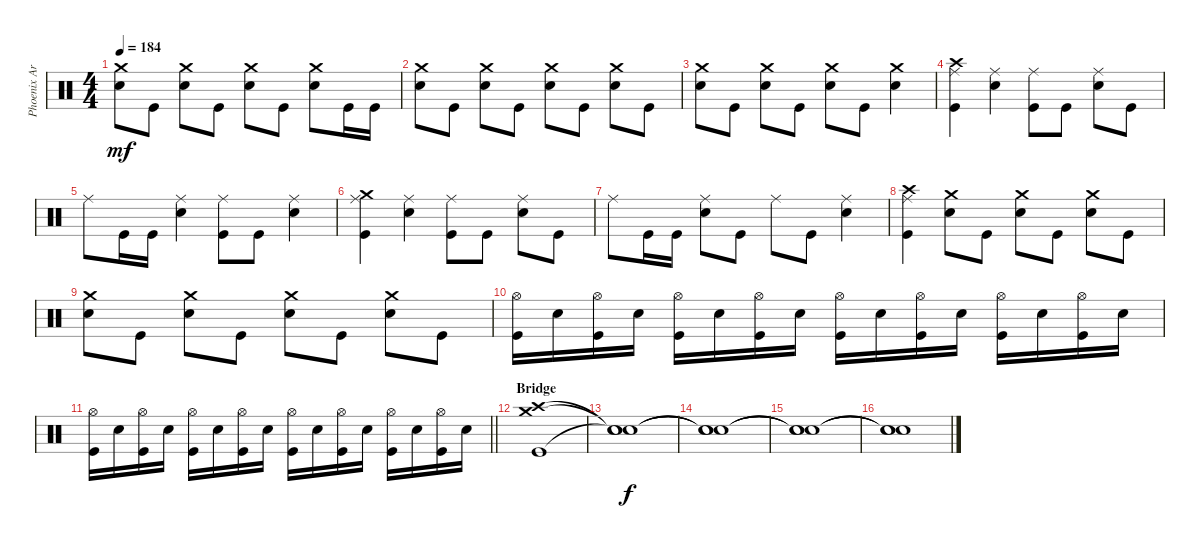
\track ("Phoenix Arn-Horn (Drums)" "Phoenix Ar") {instrument percussion}
\staff {score}
\articulation defaults
\ts (4 4)
\tempo 184
\clef neutral
\ks c
("Snare (hit) 2" "Crash medium (hit)").8{dy mf} "Kick (hit)".8 ("Snare (hit) 2" "Crash medium (hit)").8 "Kick (hit)".8 ("Snare (hit) 2" "Crash medium (hit)").8 "Kick (hit)".8 ("Snare (hit) 2" "Crash medium (hit)").8 "Kick (hit)".16 "Kick (hit)".16 |
("Snare (hit) 2" "Crash medium (hit)").8 "Kick (hit)".8 ("Snare (hit) 2" "Crash medium (hit)").8 "Kick (hit)".8 ("Snare (hit) 2" "Crash medium (hit)").8 "Kick (hit)".8 ("Snare (hit) 2" "Crash medium (hit)").8 "Kick (hit)".8 |
("Snare (hit) 2" "Crash medium (hit)").8 "Kick (hit)".8 ("Snare (hit) 2" "Crash medium (hit)").8 "Kick (hit)".8 ("Snare (hit) 2" "Crash medium (hit)").8 "Kick (hit)".8 ("Snare (hit) 2" "Crash medium (hit)").4 |
("Kick (hit)" "Ride (middle)" "Crash high (hit)").4 ("Snare (hit) 2" "Ride (middle)").4 ("Kick (hit)" "Ride (middle)").8 "Kick (hit)".8 ("Snare (hit) 2" "Ride (middle)").8 "Kick (hit)".8 |
"Ride (middle)".8 "Kick (hit)".16 "Kick (hit)".16 ("Snare (hit) 2" "Ride (middle)").4 ("Kick (hit)" "Ride (middle)").8 "Kick (hit)".8 ("Snare (hit) 2" "Ride (middle)").4 |
("Kick (hit)" "Ride (middle)" "Crash medium (hit)").4 ("Snare (hit) 2" "Ride (middle)").4 ("Kick (hit)" "Ride (middle)").8 "Kick (hit)".8 ("Snare (hit) 2" "Ride (middle)").8 "Kick (hit)".8 |
"Ride (middle)".8 "Kick (hit)".16 "Kick (hit)".16 ("Snare (hit) 2" "Ride (middle)").8 "Kick (hit)".8 "Ride (middle)".8 "Kick (hit)".8 ("Snare (hit) 2" "Ride (middle)").4 |
("Kick (hit)" "Ride (middle)" "Crash high (hit)").4 ("Snare (hit) 2" "Crash medium (hit)").8 "Kick (hit)".8 ("Snare (hit) 2" "Crash medium (hit)").8 "Kick (hit)".8 ("Snare (hit) 2" "Crash medium (hit)").8 "Kick (hit)".8 |
("Snare (hit) 2" "Crash medium (hit)").8 "Kick (hit)".8 ("Snare (hit) 2" "Crash medium (hit)").8 "Kick (hit)".8 ("Snare (hit) 2" "Crash medium (hit)").8 "Kick (hit)".8 ("Snare (hit) 2" "Crash medium (hit)").8 "Kick (hit)".8 |
("Kick (hit)" "Hi-Hat (open)").16 "Snare (hit) 2".16 ("Kick (hit)" "Hi-Hat (open)").16 "Snare (hit) 2".16 ("Kick (hit)" "Hi-Hat (open)").16 "Snare (hit) 2".16 ("Kick (hit)" "Hi-Hat (open)").16 "Snare (hit) 2".16 ("Kick (hit)" "Hi-Hat (open)").16 "Snare (hit) 2".16 ("Kick (hit)" "Hi-Hat (open)").16 "Snare (hit) 2".16 ("Kick (hit)" "Hi-Hat (open)").16 "Snare (hit) 2".16 ("Kick (hit)" "Hi-Hat (open)").16 "Snare (hit) 2".16 |
\barLineRight lightlight
("Kick (hit)" "Hi-Hat (open)").16 "Snare (hit) 2".16 ("Kick (hit)" "Hi-Hat (open)").16 "Snare (hit) 2".16 ("Kick (hit)" "Hi-Hat (open)").16 "Snare (hit) 2".16 ("Kick (hit)" "Hi-Hat (open)").16 "Snare (hit) 2".16 ("Kick (hit)" "Hi-Hat (open)").16 "Snare (hit) 2".16 ("Kick (hit)" "Hi-Hat (open)").16 "Snare (hit) 2".16 ("Kick (hit)" "Hi-Hat (open)").16 "Snare (hit) 2".16 ("Kick (hit)" "Hi-Hat (open)").16 "Snare (hit) 2".16 |
\section ("" "Bridge")
("Kick (hit)" "Crash high (hit)" "Crash medium (hit)").1 |
("Snare (hit)"{t} "Snare (hit)"{t} "Snare (hit)"{t}).1{dy f} |
("Snare (hit)"{t} "Snare (hit)"{t} "Snare (hit)"{t}).1 |
("Snare (hit)"{t} "Snare (hit)"{t} "Snare (hit)"{t}).1 |
("Snare (hit)"{t} "Snare (hit)"{t} "Snare (hit)"{t}).1
